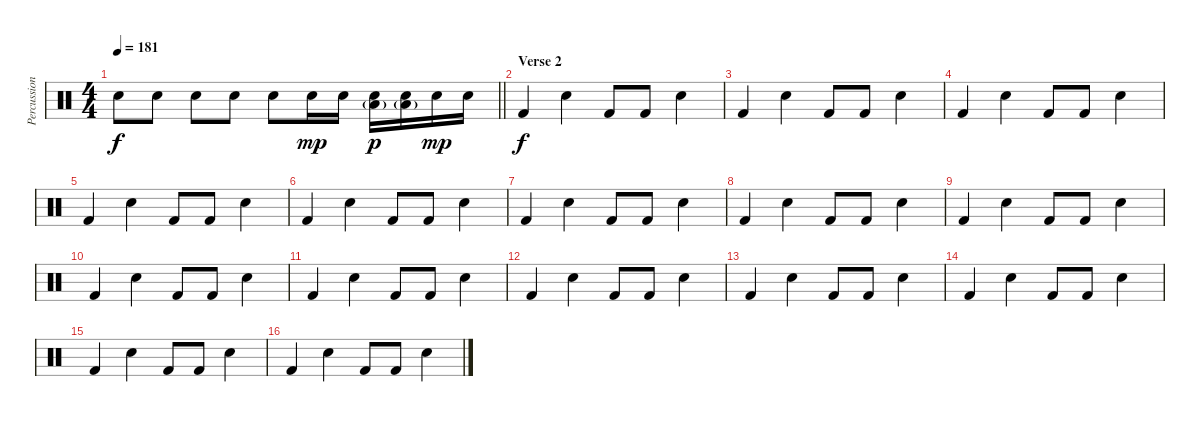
\track ("Percussions" "Percussion") {instrument percussion}
\staff {score}
\articulation defaults
\ts (4 4)
\tempo 181
\clef neutral
\barLineRight lightlight
\ks c "Snare (hit) 2".8{dy f} "Snare (hit) 2".8 "Snare (hit) 2".8 "Snare (hit) 2".8 "Snare (hit) 2".8 "Snare (hit) 2".16{dy mp} "Snare (hit) 2".16
("Low Tom (hit)"{g} "Snare (hit) 2").16{dy p} ("Low Tom (hit)"{g} "Snare (hit) 2").16 "Snare (hit) 2".16{dy mp} "Snare (hit) 2".16 |
\section ("" "Verse 2")
"Kick (hit) 2".4{dy f} "Snare (hit) 2".4 "Kick (hit) 2".8 "Kick (hit) 2".8 "Snare (hit) 2".4 |
"Kick (hit) 2".4 "Snare (hit) 2".4 "Kick (hit) 2".8 "Kick (hit) 2".8 "Snare (hit) 2".4 |
"Kick (hit) 2".4 "Snare (hit) 2".4 "Kick (hit) 2".8 "Kick (hit) 2".8 "Snare (hit) 2".4 |
"Kick (hit) 2".4 "Snare (hit) 2".4 "Kick (hit) 2".8 "Kick (hit) 2".8 "Snare (hit) 2".4 |
"Kick (hit) 2".4 "Snare (hit) 2".4 "Kick (hit) 2".8 "Kick (hit) 2".8 "Snare (hit) 2".4 |
"Kick (hit) 2".4 "Snare (hit) 2".4 "Kick (hit) 2".8 "Kick (hit) 2".8 "Snare (hit) 2".4 |
"Kick (hit) 2".4 "Snare (hit) 2".4 "Kick (hit) 2".8 "Kick (hit) 2".8 "Snare (hit) 2".4 |
"Kick (hit) 2".4 "Snare (hit) 2".4 "Kick (hit) 2".8 "Kick (hit) 2".8 "Snare (hit) 2".4 |
"Kick (hit) 2".4 "Snare (hit) 2".4 "Kick (hit) 2".8 "Kick (hit) 2".8 "Snare (hit) 2".4 |
"Kick (hit) 2".4 "Snare (hit) 2".4 "Kick (hit) 2".8 "Kick (hit) 2".8 "Snare (hit) 2".4 |
"Kick (hit) 2".4 "Snare (hit) 2".4 "Kick (hit) 2".8 "Kick (hit) 2".8 "Snare (hit) 2".4 |
"Kick (hit) 2".4 "Snare (hit) 2".4 "Kick (hit) 2".8 "Kick (hit) 2".8 "Snare (hit) 2".4 |
"Kick (hit) 2".4 "Snare (hit) 2".4 "Kick (hit) 2".8 "Kick (hit) 2".8 "Snare (hit) 2".4 |
"Kick (hit) 2".4 "Snare (hit) 2".4 "Kick (hit) 2".8 "Kick (hit) 2".8 "Snare (hit) 2".4 |
"Kick (hit) 2".4 "Snare (hit) 2".4 "Kick (hit) 2".8 "Kick (hit) 2".8 "Snare (hit) 2".4
